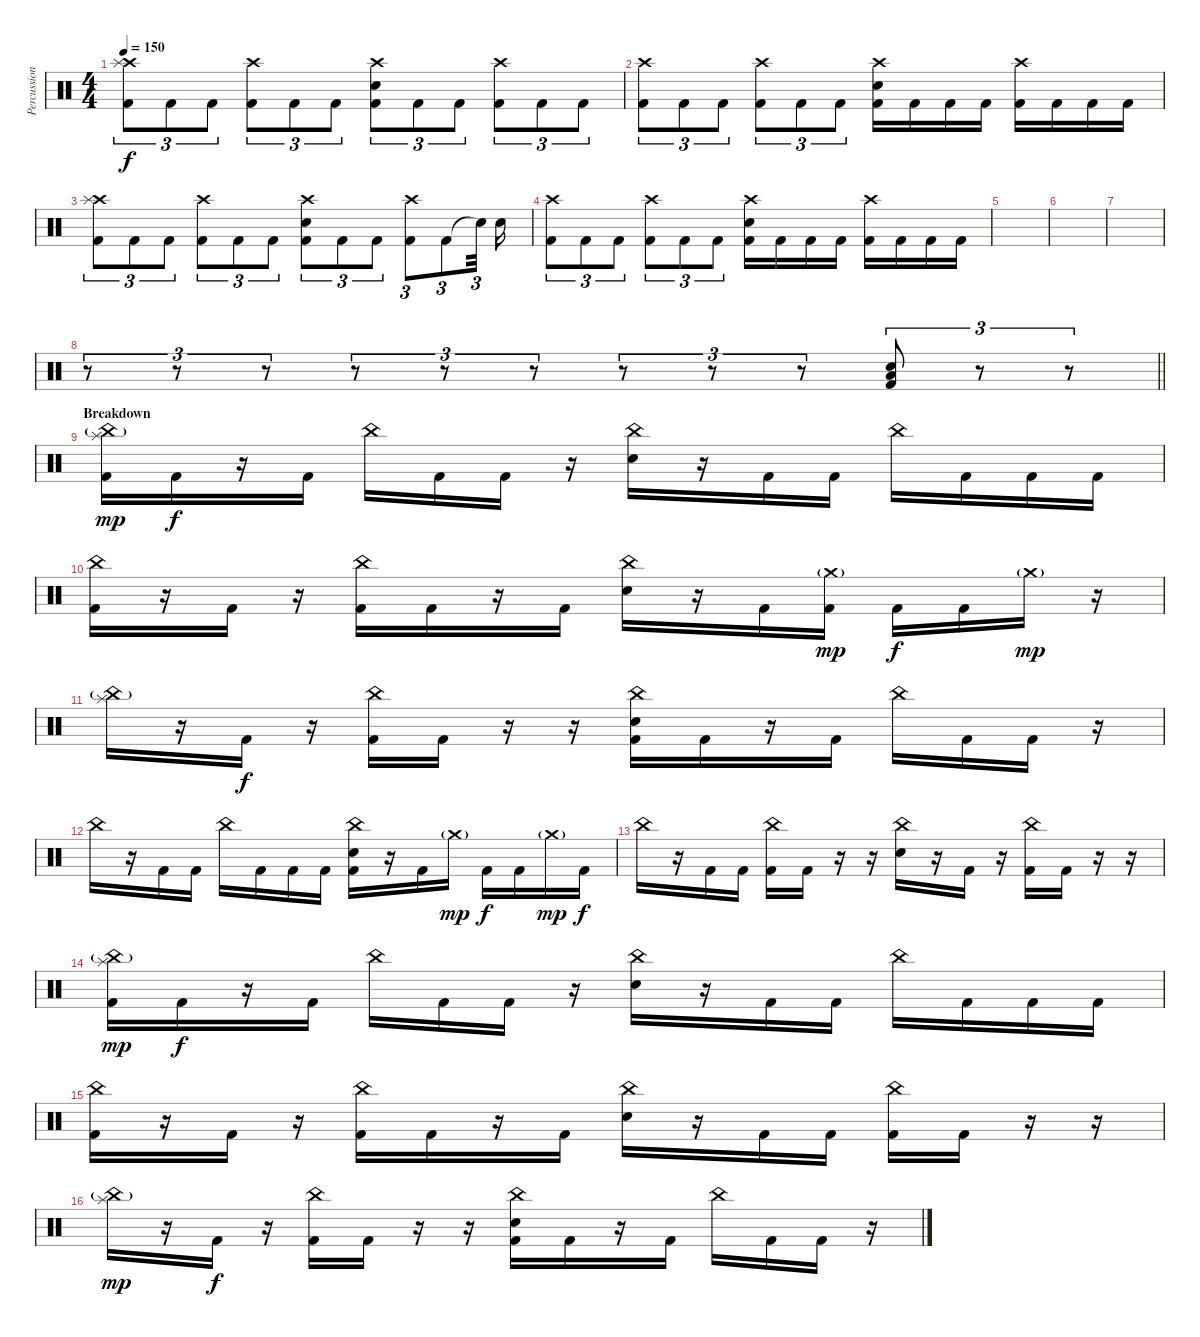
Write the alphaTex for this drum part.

\track ("Percussion" "Percussion") {instrument percussion}
\staff {score}
\articulation defaults
\ts (4 4)
\tempo 150
\clef neutral
\ks c
("Crash high (hit)" "Splash (hit)" "Kick (hit) 2").8{tu (3 2) dy f} "Kick (hit) 2".8{tu (3 2)} "Kick (hit) 2".8{tu (3 2)} ("Crash high (hit)" "Kick (hit) 2").8{tu (3 2)} "Kick (hit) 2".8{tu (3 2)} "Kick (hit) 2".8{tu (3 2)} ("Crash high (hit)" "Snare (hit) 2" "Kick (hit) 2").8{tu (3 2)} "Kick (hit) 2".8{tu (3 2)} "Kick (hit) 2".8{tu (3 2)} ("Crash high (hit)" "Kick (hit) 2").8{tu (3 2)} "Kick (hit) 2".8{tu (3 2)} "Kick (hit) 2".8{tu (3 2)} |
("Crash high (hit)" "Kick (hit) 2").8{tu (3 2)} "Kick (hit) 2".8{tu (3 2)} "Kick (hit) 2".8{tu (3 2)} ("Crash high (hit)" "Kick (hit) 2").8{tu (3 2)} "Kick (hit) 2".8{tu (3 2)} "Kick (hit) 2".8{tu (3 2)} ("Crash high (hit)" "Snare (hit) 2" "Kick (hit) 2").16 "Kick (hit) 2".16 "Kick (hit) 2".16 "Kick (hit) 2".16 ("Crash high (hit)" "Kick (hit) 2").16 "Kick (hit) 2".16 "Kick (hit) 2".16 "Kick (hit) 2".16 |
("Crash high (hit)" "Splash (hit)" "Kick (hit) 2").8{tu (3 2)} "Kick (hit) 2".8{tu (3 2)} "Kick (hit) 2".8{tu (3 2)} ("Crash high (hit)" "Kick (hit) 2").8{tu (3 2)} "Kick (hit) 2".8{tu (3 2)} "Kick (hit) 2".8{tu (3 2)} ("Crash high (hit)" "Snare (hit) 2" "Kick (hit) 2").8{tu (3 2)} "Kick (hit) 2".8{tu (3 2)} "Kick (hit) 2".8{tu (3 2)} ("Crash high (hit)" "Kick (hit) 2").8{tu (3 2)} "Kick (hit) 2".8{tu (3 2)} "Snare (hit)"{t}.32{tu (3 2) beam splitsecondary} "Snare (hit) 2".16 |
("Crash high (hit)" "Kick (hit) 2").8{tu (3 2)} "Kick (hit) 2".8{tu (3 2)} "Kick (hit) 2".8{tu (3 2)} ("Crash high (hit)" "Kick (hit) 2").8{tu (3 2)} "Kick (hit) 2".8{tu (3 2)} "Kick (hit) 2".8{tu (3 2)} ("Crash high (hit)" "Snare (hit) 2" "Kick (hit) 2").16 "Kick (hit) 2".16 "Kick (hit) 2".16 "Kick (hit) 2".16 ("Crash high (hit)" "Kick (hit) 2").16 "Kick (hit) 2".16 "Kick (hit) 2".16 "Kick (hit) 2".16 |
|
|
|
\barLineRight lightlight
r.8{tu (3 2)} r.8{tu (3 2)} r.8{tu (3 2)} r.8{tu (3 2)} r.8{tu (3 2)} r.8{tu (3 2)} r.8{tu (3 2)} r.8{tu (3 2)} r.8{tu (3 2)} ("Snare (hit) 2" "Low Tom (hit)" "Kick (hit) 2").8{tu (3 2)} r.8{tu (3 2)} r.8{tu (3 2)} |
\section ("" "Breakdown")
("Splash (hit)" "China (hit)"{g} "Kick (hit) 2").16{dy mp} "Kick (hit) 2".16{dy f} r.16 "Kick (hit) 2".16 "China (hit)".16 "Kick (hit) 2".16 "Kick (hit) 2".16 r.16 ("China (hit)" "Snare (hit) 2").16 r.16 "Kick (hit) 2".16 "Kick (hit) 2".16 "China (hit)".16 "Kick (hit) 2".16 "Kick (hit) 2".16 "Kick (hit) 2".16 |
("China (hit)" "Kick (hit) 2").16 r.16 "Kick (hit) 2".16 r.16 ("China (hit)" "Kick (hit) 2").16 "Kick (hit) 2".16 r.16 "Kick (hit) 2".16 ("China (hit)" "Snare (hit) 2").16 r.16 "Kick (hit) 2".16 ("Crash medium (hit)"{g} "Kick (hit) 2").16{dy mp} "Kick (hit) 2".16{dy f} "Kick (hit) 2".16 "Crash medium (hit)"{g}.16{dy mp} r.16 |
("Splash (hit)" "China (hit)"{g}).16 r.16 "Kick (hit) 2".16{dy f} r.16 ("China (hit)" "Kick (hit) 2").16 "Kick (hit) 2".16 r.16 r.16 ("China (hit)" "Snare (hit) 2" "Kick (hit) 2").16 "Kick (hit) 2".16 r.16 "Kick (hit) 2".16 "China (hit)".16 "Kick (hit) 2".16 "Kick (hit) 2".16 r.16 |
"China (hit)".16 r.16 "Kick (hit) 2".16 "Kick (hit) 2".16 "China (hit)".16 "Kick (hit) 2".16 "Kick (hit) 2".16 "Kick (hit) 2".16 ("China (hit)" "Snare (hit) 2" "Kick (hit) 2").16 r.16 "Kick (hit) 2".16 "Crash medium (hit)"{g}.16{dy mp} "Kick (hit) 2".16{dy f} "Kick (hit) 2".16 "Crash medium (hit)"{g}.16{dy mp} "Kick (hit) 2".16{dy f} |
"China (hit)".16 r.16 "Kick (hit) 2".16 "Kick (hit) 2".16 ("China (hit)" "Kick (hit) 2").16 "Kick (hit) 2".16 r.16 r.16 ("China (hit)" "Snare (hit) 2").16 r.16 "Kick (hit) 2".16 r.16 ("China (hit)" "Kick (hit) 2").16 "Kick (hit) 2".16 r.16 r.16 |
("Splash (hit)" "China (hit)"{g} "Kick (hit) 2").16{dy mp} "Kick (hit) 2".16{dy f} r.16 "Kick (hit) 2".16 "China (hit)".16 "Kick (hit) 2".16 "Kick (hit) 2".16 r.16 ("China (hit)" "Snare (hit) 2").16 r.16 "Kick (hit) 2".16 "Kick (hit) 2".16 "China (hit)".16 "Kick (hit) 2".16 "Kick (hit) 2".16 "Kick (hit) 2".16 |
("China (hit)" "Kick (hit) 2").16 r.16 "Kick (hit) 2".16 r.16 ("China (hit)" "Kick (hit) 2").16 "Kick (hit) 2".16 r.16 "Kick (hit) 2".16 ("China (hit)" "Snare (hit) 2").16 r.16 "Kick (hit) 2".16 "Kick (hit) 2".16 ("China (hit)" "Kick (hit) 2").16 "Kick (hit) 2".16 r.16 r.16 |
("Splash (hit)" "China (hit)"{g}).16{dy mp} r.16 "Kick (hit) 2".16{dy f} r.16 ("China (hit)" "Kick (hit) 2").16 "Kick (hit) 2".16 r.16 r.16 ("China (hit)" "Snare (hit) 2" "Kick (hit) 2").16 "Kick (hit) 2".16 r.16 "Kick (hit) 2".16 "China (hit)".16 "Kick (hit) 2".16 "Kick (hit) 2".16 r.16
